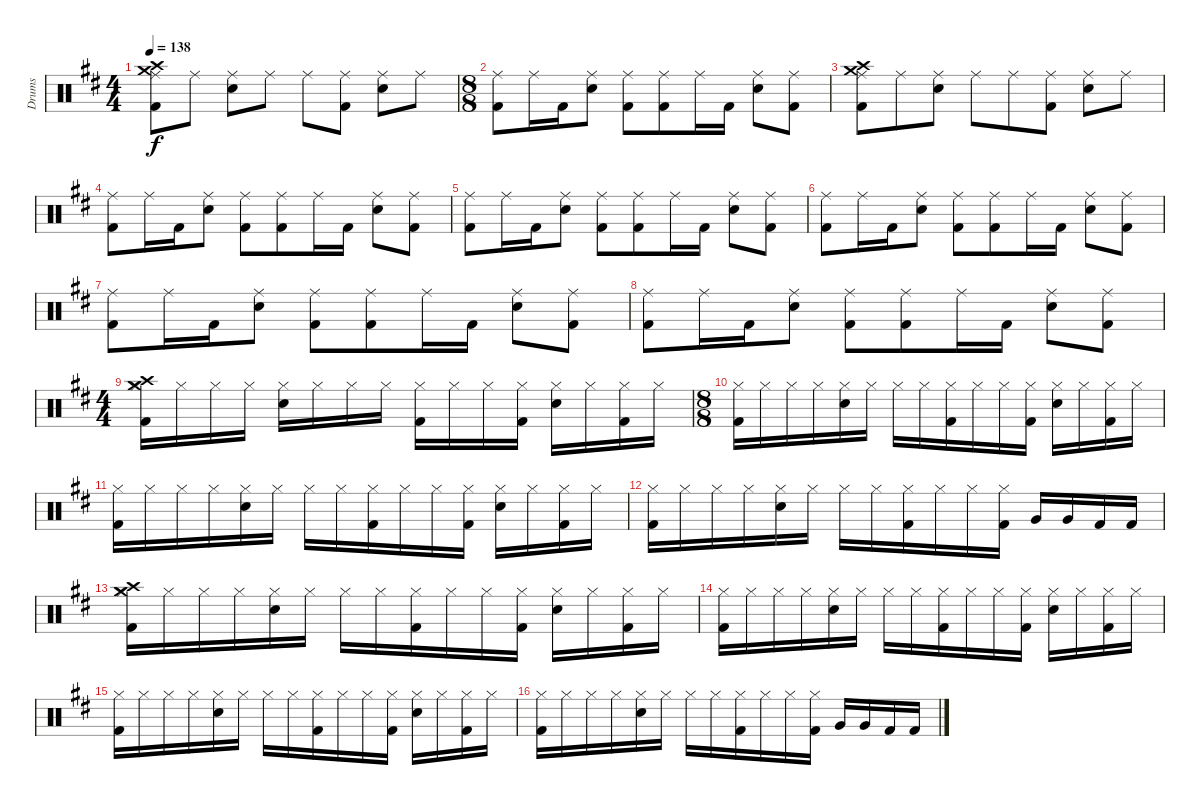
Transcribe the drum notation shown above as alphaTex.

\track ("Drums" "Drums") {instrument percussion}
\staff {score}
\articulation defaults
\ts (4 4)
\tempo 138
\clef neutral
\ks d
("Crash high (hit)" "Crash medium (hit)" "Ride (middle)" "Kick (hit) 2").8{dy f} "Ride (middle)".8 ("Ride (middle)" "Electric Snare (hit)").8 "Ride (middle)".8 "Ride (middle)".8 ("Ride (middle)" "Kick (hit) 2").8 ("Ride (middle)" "Electric Snare (hit)").8 "Ride (middle)".8 |
\ts (8 8)
("Ride (middle)" "Kick (hit) 2").8 "Ride (middle)".16 "Kick (hit) 2".16 ("Ride (middle)" "Electric Snare (hit)").8 ("Ride (middle)" "Kick (hit) 2").8 ("Ride (middle)" "Kick (hit) 2").8 "Ride (middle)".16 "Kick (hit) 2".16 ("Ride (middle)" "Electric Snare (hit)").8 ("Ride (middle)" "Kick (hit) 2").8 |
("Crash high (hit)" "Crash medium (hit)" "Ride (middle)" "Kick (hit) 2").8 "Ride (middle)".8 ("Ride (middle)" "Electric Snare (hit)").8 "Ride (middle)".8 "Ride (middle)".8 ("Ride (middle)" "Kick (hit) 2").8 ("Ride (middle)" "Electric Snare (hit)").8 "Ride (middle)".8 |
("Ride (middle)" "Kick (hit) 2").8 "Ride (middle)".16 "Kick (hit) 2".16 ("Ride (middle)" "Electric Snare (hit)").8 ("Ride (middle)" "Kick (hit) 2").8 ("Ride (middle)" "Kick (hit) 2").8 "Ride (middle)".16 "Kick (hit) 2".16 ("Ride (middle)" "Electric Snare (hit)").8 ("Ride (middle)" "Kick (hit) 2").8 |
("Ride (middle)" "Kick (hit) 2").8 "Ride (middle)".16 "Kick (hit) 2".16 ("Ride (middle)" "Electric Snare (hit)").8 ("Ride (middle)" "Kick (hit) 2").8 ("Ride (middle)" "Kick (hit) 2").8 "Ride (middle)".16 "Kick (hit) 2".16 ("Ride (middle)" "Electric Snare (hit)").8 ("Ride (middle)" "Kick (hit) 2").8 |
("Ride (middle)" "Kick (hit) 2").8 "Ride (middle)".16 "Kick (hit) 2".16 ("Ride (middle)" "Electric Snare (hit)").8 ("Ride (middle)" "Kick (hit) 2").8 ("Ride (middle)" "Kick (hit) 2").8 "Ride (middle)".16 "Kick (hit) 2".16 ("Ride (middle)" "Electric Snare (hit)").8 ("Ride (middle)" "Kick (hit) 2").8 |
("Ride (middle)" "Kick (hit) 2").8 "Ride (middle)".16 "Kick (hit) 2".16 ("Ride (middle)" "Electric Snare (hit)").8 ("Ride (middle)" "Kick (hit) 2").8 ("Ride (middle)" "Kick (hit) 2").8 "Ride (middle)".16 "Kick (hit) 2".16 ("Ride (middle)" "Electric Snare (hit)").8 ("Ride (middle)" "Kick (hit) 2").8 |
("Ride (middle)" "Kick (hit) 2").8 "Ride (middle)".16 "Kick (hit) 2".16 ("Ride (middle)" "Electric Snare (hit)").8 ("Ride (middle)" "Kick (hit) 2").8 ("Ride (middle)" "Kick (hit) 2").8 "Ride (middle)".16 "Kick (hit) 2".16 ("Ride (middle)" "Electric Snare (hit)").8 ("Ride (middle)" "Kick (hit) 2").8 |
\ts (4 4)
("Crash high (hit)" "Crash medium (hit)" "Hi-Hat (closed)" "Kick (hit) 2").16 "Hi-Hat (closed)".16 "Hi-Hat (closed)".16 "Hi-Hat (closed)".16 ("Hi-Hat (closed)" "Electric Snare (hit)").16 "Hi-Hat (closed)".16 "Hi-Hat (closed)".16 "Hi-Hat (closed)".16 ("Hi-Hat (closed)" "Kick (hit) 2").16 "Hi-Hat (closed)".16 "Hi-Hat (closed)".16 ("Hi-Hat (closed)" "Kick (hit) 2").16 ("Hi-Hat (closed)" "Electric Snare (hit)").16 "Hi-Hat (closed)".16 ("Hi-Hat (closed)" "Kick (hit) 2").16 "Hi-Hat (closed)".16 |
\ts (8 8)
("Hi-Hat (closed)" "Kick (hit) 2").16 "Hi-Hat (closed)".16 "Hi-Hat (closed)".16 "Hi-Hat (closed)".16 ("Hi-Hat (closed)" "Electric Snare (hit)").16 "Hi-Hat (closed)".16 "Hi-Hat (closed)".16 "Hi-Hat (closed)".16 ("Hi-Hat (closed)" "Kick (hit) 2").16 "Hi-Hat (closed)".16 "Hi-Hat (closed)".16 ("Hi-Hat (closed)" "Kick (hit) 2").16 ("Hi-Hat (closed)" "Electric Snare (hit)").16 "Hi-Hat (closed)".16 ("Hi-Hat (closed)" "Kick (hit) 2").16 "Hi-Hat (closed)".16 |
("Hi-Hat (closed)" "Kick (hit) 2").16 "Hi-Hat (closed)".16 "Hi-Hat (closed)".16 "Hi-Hat (closed)".16 ("Hi-Hat (closed)" "Electric Snare (hit)").16 "Hi-Hat (closed)".16 "Hi-Hat (closed)".16 "Hi-Hat (closed)".16 ("Hi-Hat (closed)" "Kick (hit) 2").16 "Hi-Hat (closed)".16 "Hi-Hat (closed)".16 ("Hi-Hat (closed)" "Kick (hit) 2").16 ("Hi-Hat (closed)" "Electric Snare (hit)").16 "Hi-Hat (closed)".16 ("Hi-Hat (closed)" "Kick (hit) 2").16 "Hi-Hat (closed)".16 |
("Hi-Hat (closed)" "Kick (hit) 2").16 "Hi-Hat (closed)".16 "Hi-Hat (closed)".16 "Hi-Hat (closed)".16 ("Hi-Hat (closed)" "Electric Snare (hit)").16 "Hi-Hat (closed)".16 "Hi-Hat (closed)".16 "Hi-Hat (closed)".16 ("Hi-Hat (closed)" "Kick (hit) 2").16 "Hi-Hat (closed)".16 "Hi-Hat (closed)".16 ("Hi-Hat (closed)" "Kick (hit) 2").16 "Very Low Tom (hit)".16 "Very Low Tom (hit)".16 "Kick (hit) 2".16 "Kick (hit) 2".16 |
("Crash high (hit)" "Crash medium (hit)" "Hi-Hat (closed)" "Kick (hit) 2").16 "Hi-Hat (closed)".16 "Hi-Hat (closed)".16 "Hi-Hat (closed)".16 ("Hi-Hat (closed)" "Electric Snare (hit)").16 "Hi-Hat (closed)".16 "Hi-Hat (closed)".16 "Hi-Hat (closed)".16 ("Hi-Hat (closed)" "Kick (hit) 2").16 "Hi-Hat (closed)".16 "Hi-Hat (closed)".16 ("Hi-Hat (closed)" "Kick (hit) 2").16 ("Hi-Hat (closed)" "Electric Snare (hit)").16 "Hi-Hat (closed)".16 ("Hi-Hat (closed)" "Kick (hit) 2").16 "Hi-Hat (closed)".16 |
("Hi-Hat (closed)" "Kick (hit) 2").16 "Hi-Hat (closed)".16 "Hi-Hat (closed)".16 "Hi-Hat (closed)".16 ("Hi-Hat (closed)" "Electric Snare (hit)").16 "Hi-Hat (closed)".16 "Hi-Hat (closed)".16 "Hi-Hat (closed)".16 ("Hi-Hat (closed)" "Kick (hit) 2").16 "Hi-Hat (closed)".16 "Hi-Hat (closed)".16 ("Hi-Hat (closed)" "Kick (hit) 2").16 ("Hi-Hat (closed)" "Electric Snare (hit)").16 "Hi-Hat (closed)".16 ("Hi-Hat (closed)" "Kick (hit) 2").16 "Hi-Hat (closed)".16 |
("Hi-Hat (closed)" "Kick (hit) 2").16 "Hi-Hat (closed)".16 "Hi-Hat (closed)".16 "Hi-Hat (closed)".16 ("Hi-Hat (closed)" "Electric Snare (hit)").16 "Hi-Hat (closed)".16 "Hi-Hat (closed)".16 "Hi-Hat (closed)".16 ("Hi-Hat (closed)" "Kick (hit) 2").16 "Hi-Hat (closed)".16 "Hi-Hat (closed)".16 ("Hi-Hat (closed)" "Kick (hit) 2").16 ("Hi-Hat (closed)" "Electric Snare (hit)").16 "Hi-Hat (closed)".16 ("Hi-Hat (closed)" "Kick (hit) 2").16 "Hi-Hat (closed)".16 |
("Hi-Hat (closed)" "Kick (hit) 2").16 "Hi-Hat (closed)".16 "Hi-Hat (closed)".16 "Hi-Hat (closed)".16 ("Hi-Hat (closed)" "Electric Snare (hit)").16 "Hi-Hat (closed)".16 "Hi-Hat (closed)".16 "Hi-Hat (closed)".16 ("Hi-Hat (closed)" "Kick (hit) 2").16 "Hi-Hat (closed)".16 "Hi-Hat (closed)".16 ("Hi-Hat (closed)" "Kick (hit) 2").16 "Very Low Tom (hit)".16 "Very Low Tom (hit)".16 "Kick (hit) 2".16 "Kick (hit) 2".16
